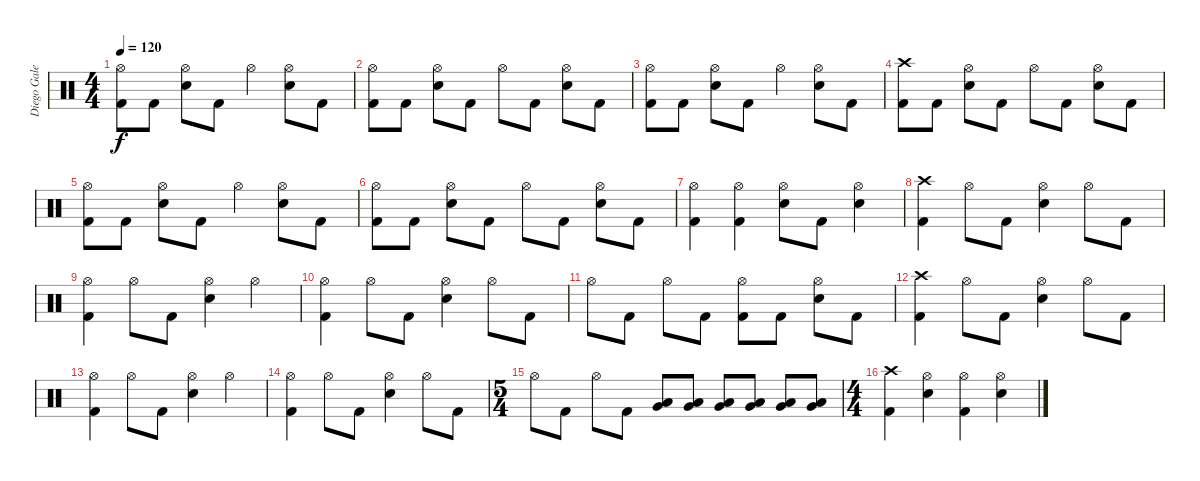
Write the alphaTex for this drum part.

\track ("Diego Galeri (batteria)" "Diego Gale") {instrument percussion}
\staff {score}
\articulation defaults
\ts (4 4)
\tempo 120
\clef neutral
\ks c
("Hi-Hat (open)" "Kick (hit) 2").8{dy f} "Kick (hit) 2".8 ("Hi-Hat (open)" "Electric Snare (hit)").8 "Kick (hit) 2".8 "Hi-Hat (open)".4 ("Hi-Hat (open)" "Electric Snare (hit)").8 "Kick (hit) 2".8 |
("Hi-Hat (open)" "Kick (hit) 2").8 "Kick (hit) 2".8 ("Hi-Hat (open)" "Electric Snare (hit)").8 "Kick (hit) 2".8 "Hi-Hat (open)".8 "Kick (hit) 2".8 ("Hi-Hat (open)" "Electric Snare (hit)").8 "Kick (hit) 2".8 |
("Hi-Hat (open)" "Kick (hit) 2").8 "Kick (hit) 2".8 ("Hi-Hat (open)" "Electric Snare (hit)").8 "Kick (hit) 2".8 "Hi-Hat (open)".4 ("Hi-Hat (open)" "Electric Snare (hit)").8 "Kick (hit) 2".8 |
("Kick (hit) 2" "Crash high (hit)").8 "Kick (hit) 2".8 ("Hi-Hat (open)" "Electric Snare (hit)").8 "Kick (hit) 2".8 "Hi-Hat (open)".8 "Kick (hit) 2".8 ("Hi-Hat (open)" "Electric Snare (hit)").8 "Kick (hit) 2".8 |
("Hi-Hat (open)" "Kick (hit) 2").8 "Kick (hit) 2".8 ("Hi-Hat (open)" "Electric Snare (hit)").8 "Kick (hit) 2".8 "Hi-Hat (open)".4 ("Hi-Hat (open)" "Electric Snare (hit)").8 "Kick (hit) 2".8 |
("Hi-Hat (open)" "Kick (hit) 2").8 "Kick (hit) 2".8 ("Hi-Hat (open)" "Electric Snare (hit)").8 "Kick (hit) 2".8 "Hi-Hat (open)".8 "Kick (hit) 2".8 ("Hi-Hat (open)" "Electric Snare (hit)").8 "Kick (hit) 2".8 |
("Hi-Hat (open)" "Kick (hit) 2").4 ("Hi-Hat (open)" "Kick (hit) 2").4 ("Hi-Hat (open)" "Electric Snare (hit)").8 "Kick (hit) 2".8 ("Hi-Hat (open)" "Electric Snare (hit)").4 |
("Kick (hit) 2" "Crash high (hit)").4 "Hi-Hat (open)".8 "Kick (hit) 2".8 ("Hi-Hat (open)" "Electric Snare (hit)").4 "Hi-Hat (open)".8 "Kick (hit) 2".8 |
("Hi-Hat (open)" "Kick (hit) 2").4 "Hi-Hat (open)".8 "Kick (hit) 2".8 ("Hi-Hat (open)" "Electric Snare (hit)").4 "Hi-Hat (open)".4 |
("Hi-Hat (open)" "Kick (hit) 2").4 "Hi-Hat (open)".8 "Kick (hit) 2".8 ("Hi-Hat (open)" "Electric Snare (hit)").4 "Hi-Hat (open)".8 "Kick (hit) 2".8 |
"Hi-Hat (open)".8 "Kick (hit) 2".8 "Hi-Hat (open)".8 "Kick (hit) 2".8 ("Hi-Hat (open)" "Kick (hit) 2").8 "Kick (hit) 2".8 ("Hi-Hat (open)" "Electric Snare (hit)").8 "Kick (hit) 2".8 |
("Kick (hit) 2" "Crash high (hit)").4 "Hi-Hat (open)".8 "Kick (hit) 2".8 ("Hi-Hat (open)" "Electric Snare (hit)").4 "Hi-Hat (open)".8 "Kick (hit) 2".8 |
("Hi-Hat (open)" "Kick (hit) 2").4 "Hi-Hat (open)".8 "Kick (hit) 2".8 ("Hi-Hat (open)" "Electric Snare (hit)").4 "Hi-Hat (open)".4 |
("Hi-Hat (open)" "Kick (hit) 2").4 "Hi-Hat (open)".8 "Kick (hit) 2".8 ("Hi-Hat (open)" "Electric Snare (hit)").4 "Hi-Hat (open)".8 "Kick (hit) 2".8 |
\ts (5 4)
"Hi-Hat (open)".8 "Kick (hit) 2".8 "Hi-Hat (open)".8 "Kick (hit) 2".8 ("Low Tom (hit)" "Very Low Tom (hit)").8 ("Low Tom (hit)" "Very Low Tom (hit)").8 ("Low Tom (hit)" "Very Low Tom (hit)").8 ("Low Tom (hit)" "Very Low Tom (hit)").8 ("Low Tom (hit)" "Very Low Tom (hit)").8 ("Low Tom (hit)" "Very Low Tom (hit)").8 |
\ts (4 4)
("Kick (hit) 2" "Crash high (hit)").4 ("Hi-Hat (open)" "Electric Snare (hit)").4 ("Hi-Hat (open)" "Kick (hit) 2").4 ("Hi-Hat (open)" "Electric Snare (hit)").4
